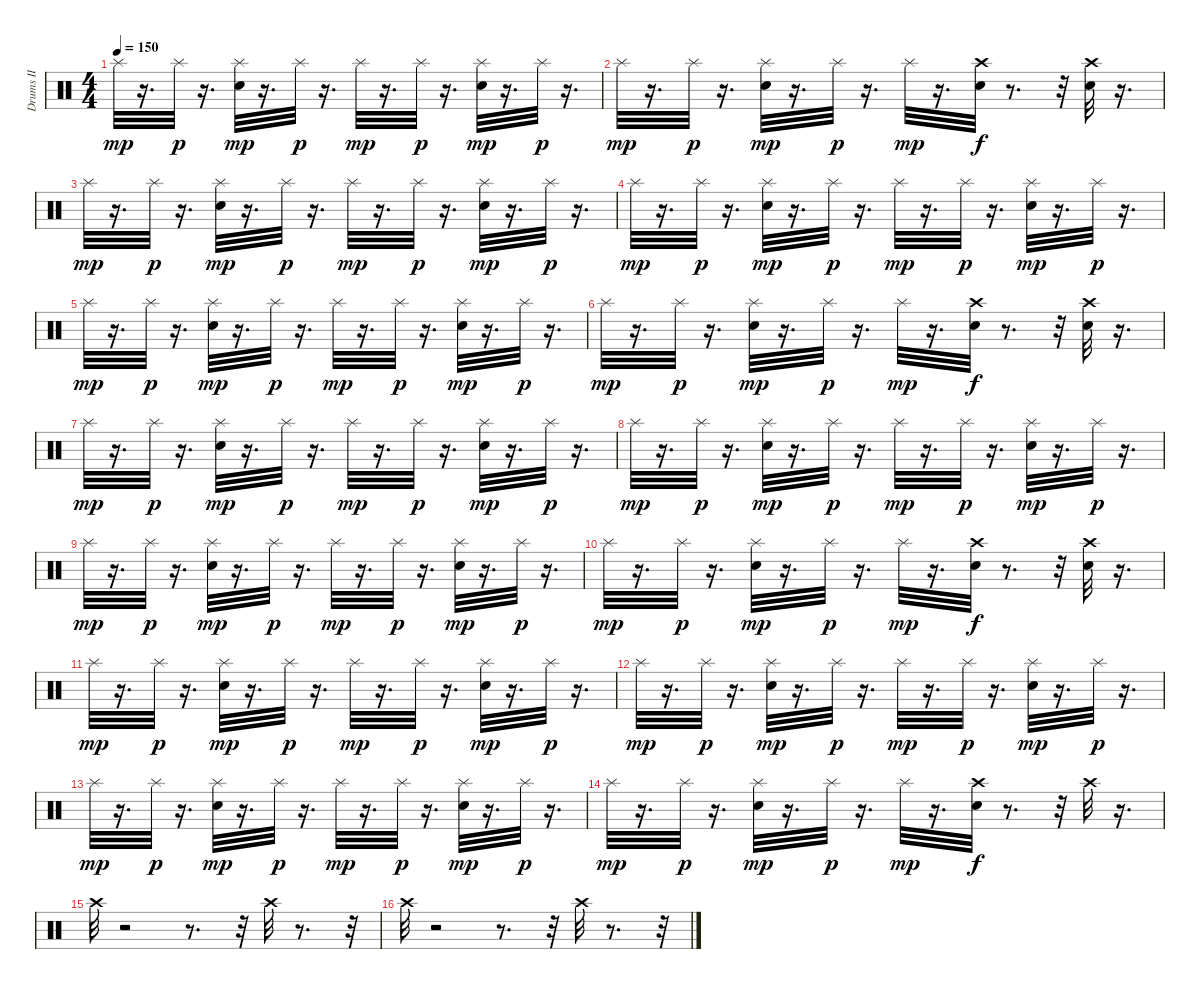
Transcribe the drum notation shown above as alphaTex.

\track ("Drums II" "Drums II") {instrument percussion}
\staff {score}
\articulation defaults
\ts (4 4)
\tempo 150
\clef neutral
\ks c "Splash (hit)".32{dy mp}
r.16{d} "Splash (hit)".32{dy p} r.16{d} ("Snare (hit) 2" "Splash (hit)").32{dy mp} r.16{d} "Splash (hit)".32{dy p} r.16{d} "Splash (hit)".32{dy mp} r.16{d} "Splash (hit)".32{dy p} r.16{d} ("Snare (hit) 2" "Splash (hit)").32{dy mp} r.16{d} "Splash (hit)".32{dy p} r.16{d} |
"Splash (hit)".32{dy mp} r.16{d} "Splash (hit)".32{dy p} r.16{d} ("Snare (hit) 2" "Splash (hit)").32{dy mp} r.16{d} "Splash (hit)".32{dy p} r.16{d} "Splash (hit)".32{dy mp} r.16{d} ("Crash high (hit)" "Snare (hit) 2").32{dy f} r.8{d} r.32 ("Crash high (hit)" "Snare (hit) 2").32 r.16{d} |
"Splash (hit)".32{dy mp} r.16{d} "Splash (hit)".32{dy p} r.16{d} ("Snare (hit) 2" "Splash (hit)").32{dy mp} r.16{d} "Splash (hit)".32{dy p} r.16{d} "Splash (hit)".32{dy mp} r.16{d} "Splash (hit)".32{dy p} r.16{d} ("Snare (hit) 2" "Splash (hit)").32{dy mp} r.16{d} "Splash (hit)".32{dy p} r.16{d} |
"Splash (hit)".32{dy mp} r.16{d} "Splash (hit)".32{dy p} r.16{d} ("Snare (hit) 2" "Splash (hit)").32{dy mp} r.16{d} "Splash (hit)".32{dy p} r.16{d} "Splash (hit)".32{dy mp} r.16{d} "Splash (hit)".32{dy p} r.16{d} ("Snare (hit) 2" "Splash (hit)").32{dy mp} r.16{d} "Splash (hit)".32{dy p} r.16{d} |
"Splash (hit)".32{dy mp} r.16{d} "Splash (hit)".32{dy p} r.16{d} ("Snare (hit) 2" "Splash (hit)").32{dy mp} r.16{d} "Splash (hit)".32{dy p} r.16{d} "Splash (hit)".32{dy mp} r.16{d} "Splash (hit)".32{dy p} r.16{d} ("Snare (hit) 2" "Splash (hit)").32{dy mp} r.16{d} "Splash (hit)".32{dy p} r.16{d} |
"Splash (hit)".32{dy mp} r.16{d} "Splash (hit)".32{dy p} r.16{d} ("Snare (hit) 2" "Splash (hit)").32{dy mp} r.16{d} "Splash (hit)".32{dy p} r.16{d} "Splash (hit)".32{dy mp} r.16{d} ("Crash high (hit)" "Snare (hit) 2").32{dy f} r.8{d} r.32 ("Crash high (hit)" "Snare (hit) 2").32 r.16{d} |
"Splash (hit)".32{dy mp} r.16{d} "Splash (hit)".32{dy p} r.16{d} ("Snare (hit) 2" "Splash (hit)").32{dy mp} r.16{d} "Splash (hit)".32{dy p} r.16{d} "Splash (hit)".32{dy mp} r.16{d} "Splash (hit)".32{dy p} r.16{d} ("Snare (hit) 2" "Splash (hit)").32{dy mp} r.16{d} "Splash (hit)".32{dy p} r.16{d} |
"Splash (hit)".32{dy mp} r.16{d} "Splash (hit)".32{dy p} r.16{d} ("Snare (hit) 2" "Splash (hit)").32{dy mp} r.16{d} "Splash (hit)".32{dy p} r.16{d} "Splash (hit)".32{dy mp} r.16{d} "Splash (hit)".32{dy p} r.16{d} ("Snare (hit) 2" "Splash (hit)").32{dy mp} r.16{d} "Splash (hit)".32{dy p} r.16{d} |
"Splash (hit)".32{dy mp} r.16{d} "Splash (hit)".32{dy p} r.16{d} ("Snare (hit) 2" "Splash (hit)").32{dy mp} r.16{d} "Splash (hit)".32{dy p} r.16{d} "Splash (hit)".32{dy mp} r.16{d} "Splash (hit)".32{dy p} r.16{d} ("Snare (hit) 2" "Splash (hit)").32{dy mp} r.16{d} "Splash (hit)".32{dy p} r.16{d} |
"Splash (hit)".32{dy mp} r.16{d} "Splash (hit)".32{dy p} r.16{d} ("Snare (hit) 2" "Splash (hit)").32{dy mp} r.16{d} "Splash (hit)".32{dy p} r.16{d} "Splash (hit)".32{dy mp} r.16{d} ("Crash high (hit)" "Snare (hit) 2").32{dy f} r.8{d} r.32 ("Crash high (hit)" "Snare (hit) 2").32 r.16{d} |
"Splash (hit)".32{dy mp} r.16{d} "Splash (hit)".32{dy p} r.16{d} ("Snare (hit) 2" "Splash (hit)").32{dy mp} r.16{d} "Splash (hit)".32{dy p} r.16{d} "Splash (hit)".32{dy mp} r.16{d} "Splash (hit)".32{dy p} r.16{d} ("Snare (hit) 2" "Splash (hit)").32{dy mp} r.16{d} "Splash (hit)".32{dy p} r.16{d} |
"Splash (hit)".32{dy mp} r.16{d} "Splash (hit)".32{dy p} r.16{d} ("Snare (hit) 2" "Splash (hit)").32{dy mp} r.16{d} "Splash (hit)".32{dy p} r.16{d} "Splash (hit)".32{dy mp} r.16{d} "Splash (hit)".32{dy p} r.16{d} ("Snare (hit) 2" "Splash (hit)").32{dy mp} r.16{d} "Splash (hit)".32{dy p} r.16{d} |
"Splash (hit)".32{dy mp} r.16{d} "Splash (hit)".32{dy p} r.16{d} ("Snare (hit) 2" "Splash (hit)").32{dy mp} r.16{d} "Splash (hit)".32{dy p} r.16{d} "Splash (hit)".32{dy mp} r.16{d} "Splash (hit)".32{dy p} r.16{d} ("Snare (hit) 2" "Splash (hit)").32{dy mp} r.16{d} "Splash (hit)".32{dy p} r.16{d} |
"Splash (hit)".32{dy mp} r.16{d} "Splash (hit)".32{dy p} r.16{d} ("Snare (hit) 2" "Splash (hit)").32{dy mp} r.16{d} "Splash (hit)".32{dy p} r.16{d} "Splash (hit)".32{dy mp} r.16{d} ("Crash high (hit)" "Snare (hit) 2").32{dy f} r.8{d} r.32 "Crash high (hit)".32 r.16{d} |
"Crash high (hit)".32 r.2 r.8{d} r.32 "Crash high (hit)".32 r.8{d} r.32 |
"Crash high (hit)".32 r.2 r.8{d} r.32 "Crash high (hit)".32 r.8{d} r.32
